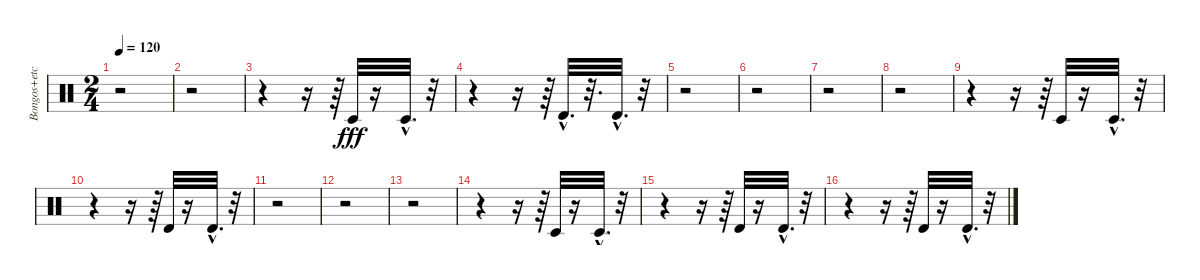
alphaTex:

\track ("Bongos+etc" "Bongos+etc") {instrument percussion}
\staff {score}
\articulation defaults
\ts (2 4)
\tempo 120
\clef neutral
\ks c
r.2{dy fff} |
r.2 |
r.4 r.16 r.64 "Timbale low (hit)".32 r.16 "Timbale low (hit)"{hac}.32{d} r.32 |
r.4 r.16 r.64 "Timbale high (hit)"{hac}.32{d} r.32{d} "Timbale high (hit)"{hac}.32{d} r.32 |
r.2 |
r.2 |
r.2 |
r.2 |
r.4 r.16 r.64 "Timbale low (hit)".32 r.16 "Timbale low (hit)"{hac}.32{d} r.32 |
r.4 r.16 r.64 "Timbale high (hit)".32 r.16 "Timbale high (hit)"{hac}.32{d} r.32 |
r.2 |
r.2 |
r.2 |
r.4 r.16 r.64 "Timbale low (hit)".32 r.16 "Timbale low (hit)"{hac}.32{d} r.32 |
r.4 r.16 r.64 "Timbale high (hit)".32 r.16 "Timbale high (hit)"{hac}.32{d} r.32 |
r.4 r.16 r.64 "Timbale high (hit)".32 r.16 "Timbale high (hit)"{hac}.32{d} r.32
